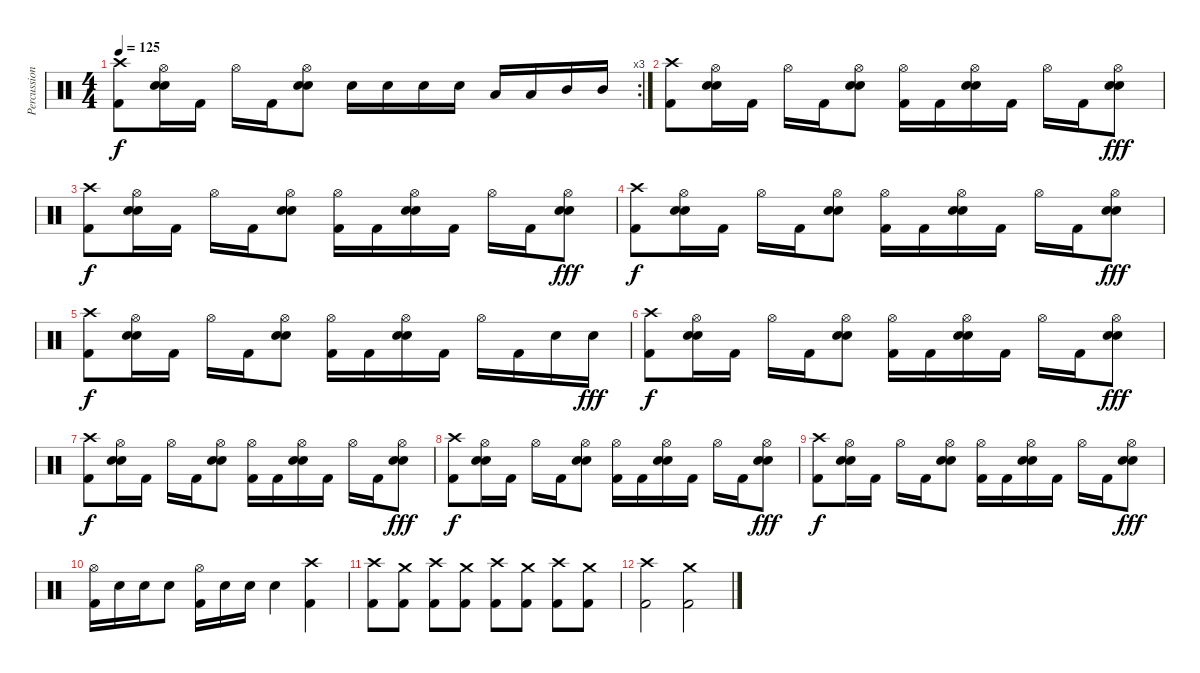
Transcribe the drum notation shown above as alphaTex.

\track ("Percussion" "Percussion") {instrument percussion}
\staff {score}
\articulation defaults
\rc 3
\ts (4 4)
\tempo 125
\clef neutral
\ks c
("Crash high (hit)" "Kick (hit) 2").8{dy f} ("Hi-Hat (open)" "Snare (hit) 2" "Snare (hit) 2").16 "Kick (hit) 2".16 "Hi-Hat (open)".16 "Kick (hit) 2".16 ("Hi-Hat (open)" "Snare (hit) 2" "Snare (hit) 2").8 "Snare (hit) 2".16 "Snare (hit) 2".16 "Snare (hit) 2".16 "Snare (hit) 2".16 "Low Tom (hit)".16 "Low Tom (hit)".16 "Mid Tom (hit)".16 "Mid Tom (hit)".16 |
("Crash high (hit)" "Kick (hit) 2").8 ("Hi-Hat (open)" "Snare (hit) 2" "Snare (hit) 2").16 "Kick (hit) 2".16 "Hi-Hat (open)".16 "Kick (hit) 2".16 ("Hi-Hat (open)" "Snare (hit) 2" "Snare (hit) 2").8 ("Hi-Hat (open)" "Kick (hit) 2").16 "Kick (hit) 2".16 ("Hi-Hat (open)" "Snare (hit) 2" "Snare (hit) 2").16 "Kick (hit) 2".16 "Hi-Hat (open)".16 "Kick (hit) 2".16 ("Hi-Hat (open)" "Snare (hit) 2" "Snare (hit) 2").8{dy fff} |
("Crash high (hit)" "Kick (hit) 2").8{dy f} ("Hi-Hat (open)" "Snare (hit) 2" "Snare (hit) 2").16 "Kick (hit) 2".16 "Hi-Hat (open)".16 "Kick (hit) 2".16 ("Hi-Hat (open)" "Snare (hit) 2" "Snare (hit) 2").8 ("Hi-Hat (open)" "Kick (hit) 2").16 "Kick (hit) 2".16 ("Hi-Hat (open)" "Snare (hit) 2" "Snare (hit) 2").16 "Kick (hit) 2".16 "Hi-Hat (open)".16 "Kick (hit) 2".16 ("Hi-Hat (open)" "Snare (hit) 2" "Snare (hit) 2").8{dy fff} |
("Crash high (hit)" "Kick (hit) 2").8{dy f} ("Hi-Hat (open)" "Snare (hit) 2" "Snare (hit) 2").16 "Kick (hit) 2".16 "Hi-Hat (open)".16 "Kick (hit) 2".16 ("Hi-Hat (open)" "Snare (hit) 2" "Snare (hit) 2").8 ("Hi-Hat (open)" "Kick (hit) 2").16 "Kick (hit) 2".16 ("Hi-Hat (open)" "Snare (hit) 2" "Snare (hit) 2").16 "Kick (hit) 2".16 "Hi-Hat (open)".16 "Kick (hit) 2".16 ("Hi-Hat (open)" "Snare (hit) 2" "Snare (hit) 2").8{dy fff} |
("Crash high (hit)" "Kick (hit) 2").8{dy f} ("Hi-Hat (open)" "Snare (hit) 2" "Snare (hit) 2").16 "Kick (hit) 2".16 "Hi-Hat (open)".16 "Kick (hit) 2".16 ("Hi-Hat (open)" "Snare (hit) 2" "Snare (hit) 2").8 ("Hi-Hat (open)" "Kick (hit) 2").16 "Kick (hit) 2".16 ("Hi-Hat (open)" "Snare (hit) 2" "Snare (hit) 2").16 "Kick (hit) 2".16 "Hi-Hat (open)".16 "Kick (hit) 2".16 "Snare (hit) 2".16 "Snare (hit) 2".16{dy fff} |
("Crash high (hit)" "Kick (hit) 2").8{dy f} ("Hi-Hat (open)" "Snare (hit) 2" "Snare (hit) 2").16 "Kick (hit) 2".16 "Hi-Hat (open)".16 "Kick (hit) 2".16 ("Hi-Hat (open)" "Snare (hit) 2" "Snare (hit) 2").8 ("Hi-Hat (open)" "Kick (hit) 2").16 "Kick (hit) 2".16 ("Hi-Hat (open)" "Snare (hit) 2" "Snare (hit) 2").16 "Kick (hit) 2".16 "Hi-Hat (open)".16 "Kick (hit) 2".16 ("Hi-Hat (open)" "Snare (hit) 2" "Snare (hit) 2").8{dy fff} |
("Crash high (hit)" "Kick (hit) 2").8{dy f} ("Hi-Hat (open)" "Snare (hit) 2" "Snare (hit) 2").16 "Kick (hit) 2".16 "Hi-Hat (open)".16 "Kick (hit) 2".16 ("Hi-Hat (open)" "Snare (hit) 2" "Snare (hit) 2").8 ("Hi-Hat (open)" "Kick (hit) 2").16 "Kick (hit) 2".16 ("Hi-Hat (open)" "Snare (hit) 2" "Snare (hit) 2").16 "Kick (hit) 2".16 "Hi-Hat (open)".16 "Kick (hit) 2".16 ("Hi-Hat (open)" "Snare (hit) 2" "Snare (hit) 2").8{dy fff} |
("Crash high (hit)" "Kick (hit) 2").8{dy f} ("Hi-Hat (open)" "Snare (hit) 2" "Snare (hit) 2").16 "Kick (hit) 2".16 "Hi-Hat (open)".16 "Kick (hit) 2".16 ("Hi-Hat (open)" "Snare (hit) 2" "Snare (hit) 2").8 ("Hi-Hat (open)" "Kick (hit) 2").16 "Kick (hit) 2".16 ("Hi-Hat (open)" "Snare (hit) 2" "Snare (hit) 2").16 "Kick (hit) 2".16 "Hi-Hat (open)".16 "Kick (hit) 2".16 ("Hi-Hat (open)" "Snare (hit) 2" "Snare (hit) 2").8{dy fff} |
("Crash high (hit)" "Kick (hit) 2").8{dy f} ("Hi-Hat (open)" "Snare (hit) 2" "Snare (hit) 2").16 "Kick (hit) 2".16 "Hi-Hat (open)".16 "Kick (hit) 2".16 ("Hi-Hat (open)" "Snare (hit) 2" "Snare (hit) 2").8 ("Hi-Hat (open)" "Kick (hit) 2").16 "Kick (hit) 2".16 ("Hi-Hat (open)" "Snare (hit) 2" "Snare (hit) 2").16 "Kick (hit) 2".16 "Hi-Hat (open)".16 "Kick (hit) 2".16 ("Hi-Hat (open)" "Snare (hit) 2" "Snare (hit) 2").8{dy fff} |
("Hi-Hat (open)" "Kick (hit) 2").16 "Snare (hit) 2".16 "Snare (hit) 2".16 "Snare (hit) 2".8 ("Hi-Hat (open)" "Kick (hit) 2").16 "Snare (hit) 2".16 "Snare (hit) 2".16 "Snare (hit) 2".4 ("Crash high (hit)" "Kick (hit) 2").4 |
("Crash high (hit)" "Kick (hit) 2").8 ("Crash medium (hit)" "Kick (hit) 2").8 ("Crash high (hit)" "Kick (hit) 2").8 ("Crash medium (hit)" "Kick (hit) 2").8 ("Crash high (hit)" "Kick (hit) 2").8 ("Crash medium (hit)" "Kick (hit) 2").8 ("Crash high (hit)" "Kick (hit) 2").8 ("Crash medium (hit)" "Kick (hit) 2").8 |
("Crash high (hit)" "Kick (hit) 2").2 ("Crash medium (hit)" "Kick (hit) 2").2
